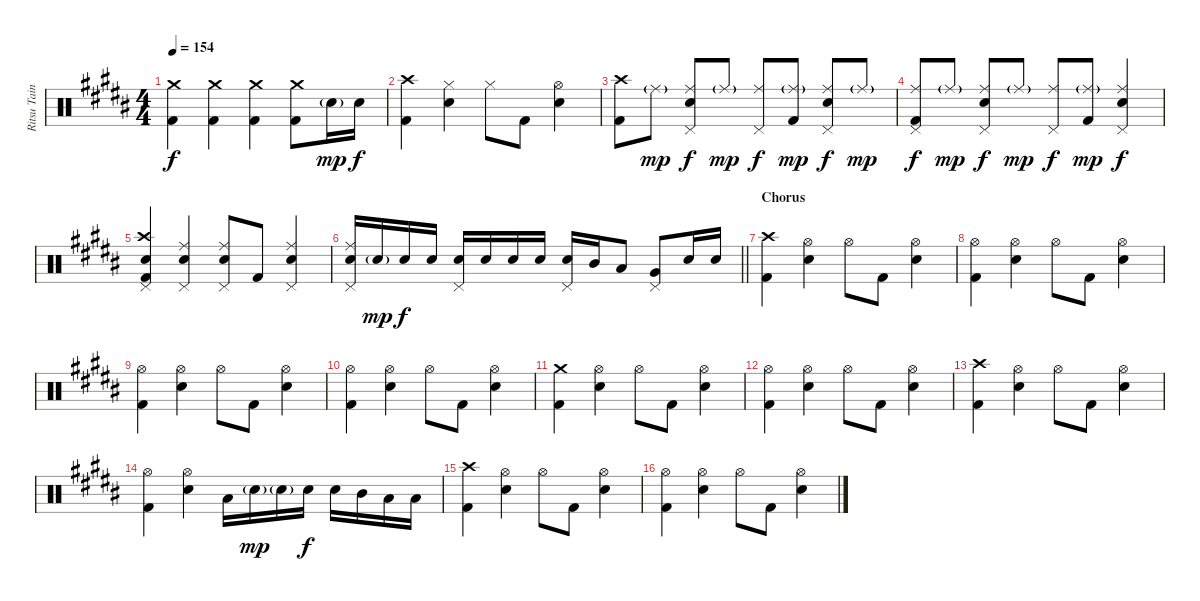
\track ("Ritsu Tainaka" "Ritsu Tain") {instrument percussion}
\staff {score}
\articulation defaults
\ts (4 4)
\tempo 154
\clef neutral
\ks b
("Crash medium (hit)" "Kick (hit) 2").4{dy f} ("Crash medium (hit)" "Kick (hit) 2").4 ("Crash medium (hit)" "Kick (hit) 2").4 ("Crash medium (hit)" "Kick (hit) 2").8 "Snare (hit) 2"{g}.16{dy mp} "Snare (hit) 2".16{dy f} |
("Crash high (hit)" "Kick (hit) 2").4 ("Hi-Hat (closed)" "Snare (hit) 2").4 "Hi-Hat (closed)".8 "Kick (hit) 2".8 ("Hi-Hat (open)" "Snare (hit) 2").4 |
("Crash high (hit)" "Kick (hit) 2").8 "Ride (middle)"{g}.8{dy mp} ("Ride (middle)" "Pedal Hi-Hat (hit)" "Snare (hit) 2").8{dy f} "Ride (middle)"{g}.8{dy mp} ("Ride (middle)" "Pedal Hi-Hat (hit)").8{dy f} ("Ride (middle)"{g} "Kick (hit) 2").8{dy mp} ("Ride (middle)" "Pedal Hi-Hat (hit)" "Snare (hit) 2").8{dy f} "Ride (middle)"{g}.8{dy mp} |
("Ride (middle)" "Pedal Hi-Hat (hit)" "Kick (hit) 2").8{dy f} "Ride (middle)"{g}.8{dy mp} ("Ride (middle)" "Pedal Hi-Hat (hit)" "Snare (hit) 2").8{dy f} "Ride (middle)"{g}.8{dy mp} ("Ride (middle)" "Pedal Hi-Hat (hit)").8{dy f} ("Ride (middle)"{g} "Kick (hit) 2").8{dy mp} ("Ride (middle)" "Pedal Hi-Hat (hit)" "Snare (hit) 2").4{dy f} |
("Crash high (hit)" "Pedal Hi-Hat (hit)" "Snare (hit) 2" "Kick (hit) 2").4 ("Ride (middle)" "Pedal Hi-Hat (hit)" "Snare (hit) 2").4 ("Ride (middle)" "Pedal Hi-Hat (hit)" "Snare (hit) 2").8 "Kick (hit) 2".8 ("Ride (middle)" "Pedal Hi-Hat (hit)" "Snare (hit) 2").4 |
\barLineRight lightlight
("Ride (middle)" "Pedal Hi-Hat (hit)" "Snare (hit) 2").16 "Snare (hit) 2"{g}.16{dy mp} "Snare (hit) 2".16{dy f} "Snare (hit) 2".16 ("Pedal Hi-Hat (hit)" "Snare (hit) 2").16 "Snare (hit) 2".16 "Snare (hit) 2".16 "Snare (hit) 2".16 ("Pedal Hi-Hat (hit)" "Snare (hit) 2").16 "Mid Tom (hit)".16 "Low Tom (hit)".8 ("Pedal Hi-Hat (hit)" "Very Low Tom (hit)").8 "Snare (hit) 2".16 "Snare (hit) 2".16 |
\section ("" "Chorus")
("Crash high (hit)" "Kick (hit) 2").4 ("Hi-Hat (open)" "Snare (hit) 2").4 "Hi-Hat (open)".8 "Kick (hit) 2".8 ("Hi-Hat (open)" "Snare (hit) 2").4 |
("Hi-Hat (open)" "Kick (hit) 2").4 ("Hi-Hat (open)" "Snare (hit) 2").4 "Hi-Hat (open)".8 "Kick (hit) 2".8 ("Hi-Hat (open)" "Snare (hit) 2").4 |
("Hi-Hat (open)" "Kick (hit) 2").4 ("Hi-Hat (open)" "Snare (hit) 2").4 "Hi-Hat (open)".8 "Kick (hit) 2".8 ("Hi-Hat (open)" "Snare (hit) 2").4 |
("Hi-Hat (open)" "Kick (hit) 2").4 ("Hi-Hat (open)" "Snare (hit) 2").4 "Hi-Hat (open)".8 "Kick (hit) 2".8 ("Hi-Hat (open)" "Snare (hit) 2").4 |
("Crash medium (hit)" "Kick (hit) 2").4 ("Hi-Hat (open)" "Snare (hit) 2").4 "Hi-Hat (open)".8 "Kick (hit) 2".8 ("Hi-Hat (open)" "Snare (hit) 2").4 |
("Hi-Hat (open)" "Kick (hit) 2").4 ("Hi-Hat (open)" "Snare (hit) 2").4 "Hi-Hat (open)".8 "Kick (hit) 2".8 ("Hi-Hat (open)" "Snare (hit) 2").4 |
("Crash high (hit)" "Kick (hit) 2").4 ("Hi-Hat (open)" "Snare (hit) 2").4 "Hi-Hat (open)".8 "Kick (hit) 2".8 ("Hi-Hat (open)" "Snare (hit) 2").4 |
("Hi-Hat (open)" "Kick (hit) 2").4 ("Hi-Hat (open)" "Snare (hit) 2").4 "Low Tom (hit)".16 "Snare (hit) 2"{g}.16{dy mp} "Snare (hit) 2"{g}.16 "Snare (hit) 2".16{dy f} "Snare (hit) 2".16 "Mid Tom (hit)".16 "Low Tom (hit)".16 "Low Floor Tom (hit)".16 |
("Crash high (hit)" "Kick (hit) 2").4 ("Hi-Hat (open)" "Snare (hit) 2").4 "Hi-Hat (open)".8 "Kick (hit) 2".8 ("Hi-Hat (open)" "Snare (hit) 2").4 |
("Hi-Hat (open)" "Kick (hit) 2").4 ("Hi-Hat (open)" "Snare (hit) 2").4 "Hi-Hat (open)".8 "Kick (hit) 2".8 ("Hi-Hat (open)" "Snare (hit) 2").4
